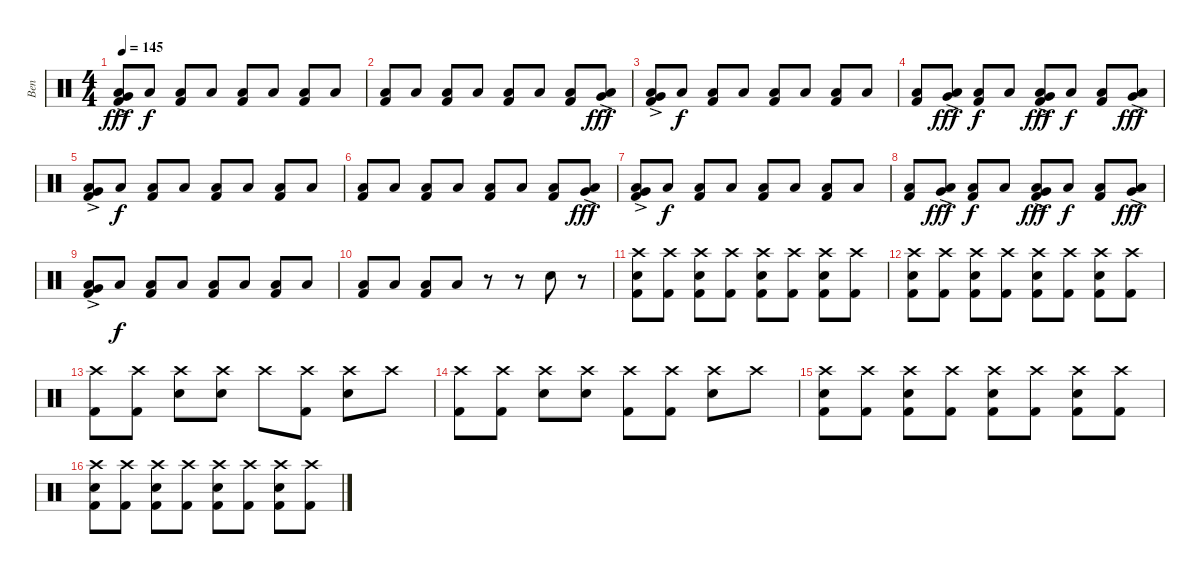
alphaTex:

\track ("Ben" "Ben") {instrument percussion}
\staff {score}
\articulation defaults
\ts (4 4)
\tempo 145
\clef neutral
\ks c
("Very Low Tom (hit)"{ac} "Low Floor Tom (hit)"{ac} "Kick (hit) 2"{ac}).8{dy fff} "Low Floor Tom (hit)".8{dy f} ("Low Floor Tom (hit)" "Kick (hit) 2").8 "Low Floor Tom (hit)".8 ("Low Floor Tom (hit)" "Kick (hit) 2").8 "Low Floor Tom (hit)".8 ("Low Floor Tom (hit)" "Kick (hit) 2").8 "Low Floor Tom (hit)".8 |
("Low Floor Tom (hit)" "Kick (hit) 2").8 "Low Floor Tom (hit)".8 ("Low Floor Tom (hit)" "Kick (hit) 2").8 "Low Floor Tom (hit)".8 ("Low Floor Tom (hit)" "Kick (hit) 2").8 "Low Floor Tom (hit)".8 ("Low Floor Tom (hit)" "Kick (hit) 2").8 ("Very Low Tom (hit)"{ac} "Low Floor Tom (hit)"{ac}).8{dy fff} |
("Very Low Tom (hit)"{ac} "Low Floor Tom (hit)"{ac} "Kick (hit) 2").8 "Low Floor Tom (hit)".8{dy f} ("Low Floor Tom (hit)" "Kick (hit) 2").8 "Low Floor Tom (hit)".8 ("Low Floor Tom (hit)" "Kick (hit) 2").8 "Low Floor Tom (hit)".8 ("Low Floor Tom (hit)" "Kick (hit) 2").8 "Low Floor Tom (hit)".8 |
("Low Floor Tom (hit)" "Kick (hit) 2").8 ("Very Low Tom (hit)"{ac} "Low Floor Tom (hit)"{ac}).8{dy fff} ("Low Floor Tom (hit)" "Kick (hit) 2").8{dy f} "Low Floor Tom (hit)".8 ("Very Low Tom (hit)" "Low Floor Tom (hit)"{ac} "Kick (hit) 2"{ac}).8{dy fff} "Low Floor Tom (hit)".8{dy f} ("Low Floor Tom (hit)" "Kick (hit) 2").8 ("Very Low Tom (hit)"{ac} "Low Floor Tom (hit)"{ac}).8{dy fff} |
("Very Low Tom (hit)"{ac} "Low Floor Tom (hit)"{ac} "Kick (hit) 2"{ac}).8 "Low Floor Tom (hit)".8{dy f} ("Low Floor Tom (hit)" "Kick (hit) 2").8 "Low Floor Tom (hit)".8 ("Low Floor Tom (hit)" "Kick (hit) 2").8 "Low Floor Tom (hit)".8 ("Low Floor Tom (hit)" "Kick (hit) 2").8 "Low Floor Tom (hit)".8 |
("Low Floor Tom (hit)" "Kick (hit) 2").8 "Low Floor Tom (hit)".8 ("Low Floor Tom (hit)" "Kick (hit) 2").8 "Low Floor Tom (hit)".8 ("Low Floor Tom (hit)" "Kick (hit) 2").8 "Low Floor Tom (hit)".8 ("Low Floor Tom (hit)" "Kick (hit) 2").8 ("Very Low Tom (hit)"{ac} "Low Floor Tom (hit)"{ac}).8{dy fff} |
("Very Low Tom (hit)"{ac} "Low Floor Tom (hit)"{ac} "Kick (hit) 2"{ac}).8 "Low Floor Tom (hit)".8{dy f} ("Low Floor Tom (hit)" "Kick (hit) 2").8 "Low Floor Tom (hit)".8 ("Low Floor Tom (hit)" "Kick (hit) 2").8 "Low Floor Tom (hit)".8 ("Low Floor Tom (hit)" "Kick (hit) 2").8 "Low Floor Tom (hit)".8 |
("Low Floor Tom (hit)" "Kick (hit) 2").8 ("Very Low Tom (hit)"{ac} "Low Floor Tom (hit)"{ac}).8{dy fff} ("Low Floor Tom (hit)" "Kick (hit) 2").8{dy f} "Low Floor Tom (hit)".8 ("Very Low Tom (hit)"{ac} "Low Floor Tom (hit)"{ac} "Kick (hit) 2"{ac}).8{dy fff} "Low Floor Tom (hit)".8{dy f} ("Low Floor Tom (hit)" "Kick (hit) 2").8 ("Very Low Tom (hit)"{ac} "Low Floor Tom (hit)"{ac}).8{dy fff} |
("Very Low Tom (hit)" "Low Floor Tom (hit)"{ac} "Kick (hit) 2"{ac}).8 "Low Floor Tom (hit)".8{dy f} ("Low Floor Tom (hit)" "Kick (hit) 2").8 "Low Floor Tom (hit)".8 ("Low Floor Tom (hit)" "Kick (hit) 2").8 "Low Floor Tom (hit)".8 ("Low Floor Tom (hit)" "Kick (hit) 2").8 "Low Floor Tom (hit)".8 |
("Low Floor Tom (hit)" "Kick (hit) 2").8 "Low Floor Tom (hit)".8 ("Low Floor Tom (hit)" "Kick (hit) 2").8 "Low Floor Tom (hit)".8 r.8 r.8 "Electric Snare (hit)".8 r.8 |
("Crash high (hit)" "Electric Snare (hit)" "Kick (hit) 2").8 ("Crash high (hit)" "Kick (hit) 2").8 ("Crash high (hit)" "Electric Snare (hit)" "Kick (hit) 2").8 ("Crash high (hit)" "Kick (hit) 2").8 ("Crash high (hit)" "Electric Snare (hit)" "Kick (hit) 2").8 ("Crash high (hit)" "Kick (hit) 2").8 ("Crash high (hit)" "Electric Snare (hit)" "Kick (hit) 2").8 ("Crash high (hit)" "Kick (hit) 2").8 |
("Crash high (hit)" "Electric Snare (hit)" "Kick (hit) 2").8 ("Crash high (hit)" "Kick (hit) 2").8 ("Crash high (hit)" "Electric Snare (hit)" "Kick (hit) 2").8 ("Crash high (hit)" "Kick (hit) 2").8 ("Crash high (hit)" "Electric Snare (hit)" "Kick (hit) 2").8 ("Crash high (hit)" "Kick (hit) 2").8 ("Crash high (hit)" "Electric Snare (hit)" "Kick (hit) 2").8 ("Crash high (hit)" "Kick (hit) 2").8 |
("Crash high (hit)" "Kick (hit) 2").8 ("Crash high (hit)" "Kick (hit) 2").8 ("Crash high (hit)" "Electric Snare (hit)").8 ("Crash high (hit)" "Electric Snare (hit)").8 "Crash high (hit)".8 ("Crash high (hit)" "Kick (hit) 2").8 ("Crash high (hit)" "Electric Snare (hit)").8 "Crash high (hit)".8 |
("Crash high (hit)" "Kick (hit) 2").8 ("Crash high (hit)" "Kick (hit) 2").8 ("Crash high (hit)" "Electric Snare (hit)").8 ("Crash high (hit)" "Electric Snare (hit)").8 ("Crash high (hit)" "Kick (hit) 2").8 ("Crash high (hit)" "Kick (hit) 2").8 ("Crash high (hit)" "Electric Snare (hit)").8 "Crash high (hit)".8 |
("Crash high (hit)" "Electric Snare (hit)" "Kick (hit) 2").8 ("Crash high (hit)" "Kick (hit) 2").8 ("Crash high (hit)" "Electric Snare (hit)" "Kick (hit) 2").8 ("Crash high (hit)" "Kick (hit) 2").8 ("Crash high (hit)" "Electric Snare (hit)" "Kick (hit) 2").8 ("Crash high (hit)" "Kick (hit) 2").8 ("Crash high (hit)" "Electric Snare (hit)" "Kick (hit) 2").8 ("Crash high (hit)" "Kick (hit) 2").8 |
("Crash high (hit)" "Electric Snare (hit)" "Kick (hit) 2").8 ("Crash high (hit)" "Kick (hit) 2").8 ("Crash high (hit)" "Electric Snare (hit)" "Kick (hit) 2").8 ("Crash high (hit)" "Kick (hit) 2").8 ("Crash high (hit)" "Electric Snare (hit)" "Kick (hit) 2").8 ("Crash high (hit)" "Kick (hit) 2").8 ("Crash high (hit)" "Electric Snare (hit)" "Kick (hit) 2").8 ("Crash high (hit)" "Kick (hit) 2").8
